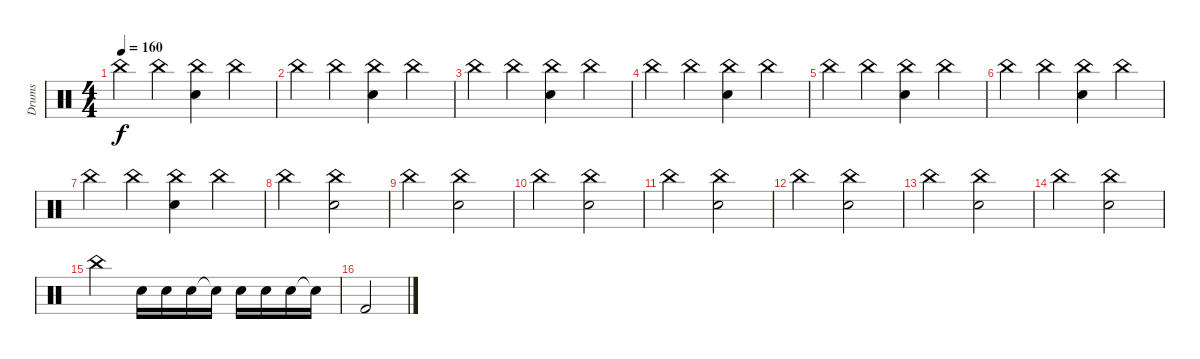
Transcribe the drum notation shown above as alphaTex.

\track ("Drums" "Drums") {instrument percussion}
\staff {score}
\articulation defaults
\ts (4 4)
\tempo 160
\clef neutral
\ks c "China (hit)".4{dy f} "China (hit)".4
("China (hit)" "Electric Snare (hit)").4 "China (hit)".4 |
"China (hit)".4 "China (hit)".4 ("China (hit)" "Electric Snare (hit)").4 "China (hit)".4 |
"China (hit)".4 "China (hit)".4 ("China (hit)" "Electric Snare (hit)").4 "China (hit)".4 |
"China (hit)".4 "China (hit)".4 ("China (hit)" "Electric Snare (hit)").4 "China (hit)".4 |
"China (hit)".4 "China (hit)".4 ("China (hit)" "Electric Snare (hit)").4 "China (hit)".4 |
"China (hit)".4 "China (hit)".4 ("China (hit)" "Electric Snare (hit)").4 "China (hit)".4 |
"China (hit)".4 "China (hit)".4 ("China (hit)" "Electric Snare (hit)").4 "China (hit)".4 |
"China (hit)".2 ("China (hit)" "Electric Snare (hit)").2 |
"China (hit)".2 ("China (hit)" "Electric Snare (hit)").2 |
"China (hit)".2 ("China (hit)" "Electric Snare (hit)").2 |
"China (hit)".2 ("China (hit)" "Electric Snare (hit)").2 |
"China (hit)".2 ("China (hit)" "Electric Snare (hit)").2 |
"China (hit)".2 ("China (hit)" "Electric Snare (hit)").2 |
"China (hit)".2 ("China (hit)" "Electric Snare (hit)").2 |
"China (hit)".2 "Electric Snare (hit)".16 "Electric Snare (hit)".16 "Electric Snare (hit)".16 "Electric Snare (hit)"{t}.16 "Electric Snare (hit)".16 "Electric Snare (hit)".16 "Electric Snare (hit)".16 "Electric Snare (hit)"{t}.16 |
"Kick (hit) 2".2
